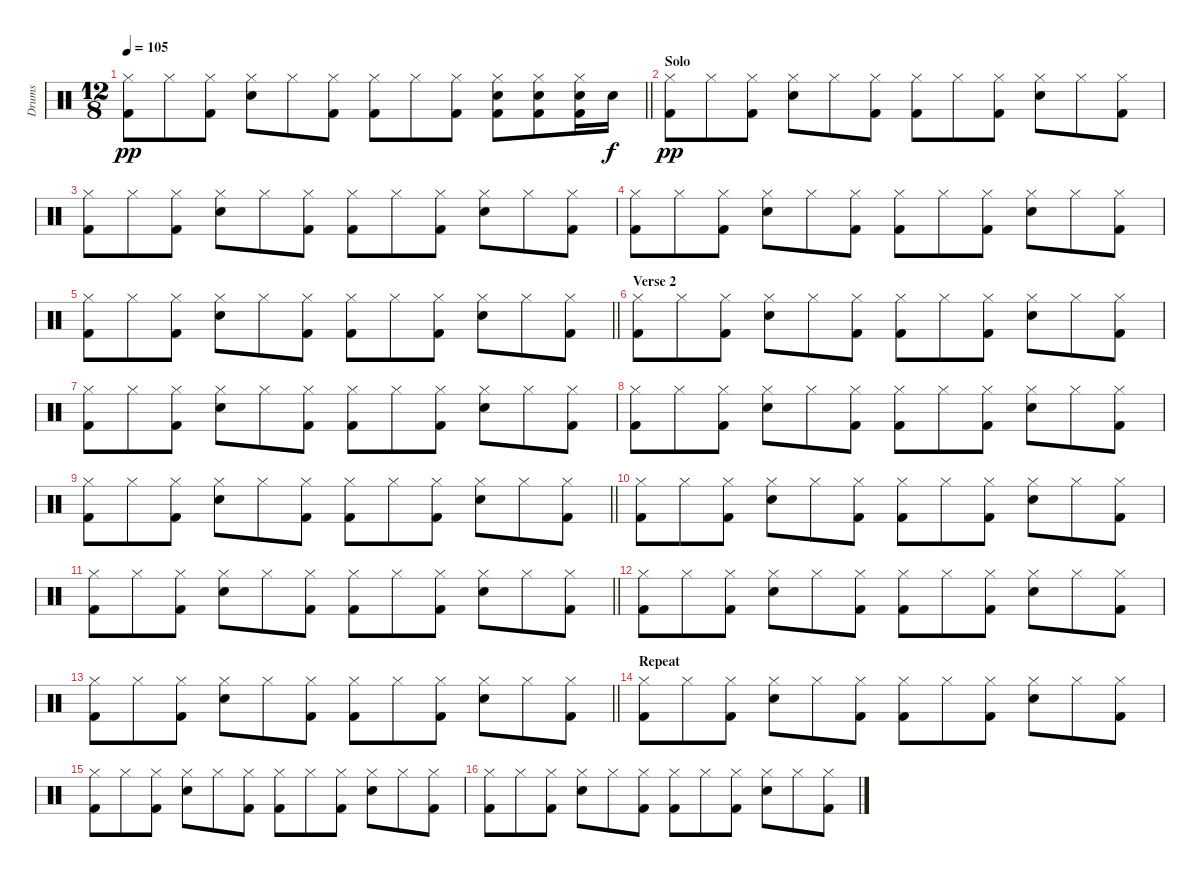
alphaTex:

\track ("Drums" "Drums") {instrument percussion}
\staff
\articulation defaults
\ts (12 8)
\tempo 105
\clef neutral
\barLineRight lightlight
\ks c
("Hi-Hat (closed)" "Kick (hit) 2").8{dy pp} "Hi-Hat (closed)".8 ("Hi-Hat (closed)" "Kick (hit) 2").8 ("Hi-Hat (closed)" "Snare (hit) 2").8 "Hi-Hat (closed)".8 ("Hi-Hat (closed)" "Kick (hit) 2").8 ("Hi-Hat (closed)" "Kick (hit) 2").8 "Hi-Hat (closed)".8 ("Hi-Hat (closed)" "Kick (hit) 2").8 ("Hi-Hat (closed)" "Snare (hit) 2" "Kick (hit) 2").8 ("Hi-Hat (closed)" "Snare (hit) 2" "Kick (hit) 2").8 ("Hi-Hat (closed)" "Snare (hit) 2" "Kick (hit) 2").16 "Snare (hit) 2".16{dy f} |
\section ("" "Solo")
("Hi-Hat (closed)" "Kick (hit) 2").8{dy pp} "Hi-Hat (closed)".8 ("Hi-Hat (closed)" "Kick (hit) 2").8 ("Hi-Hat (closed)" "Snare (hit) 2").8 "Hi-Hat (closed)".8 ("Hi-Hat (closed)" "Kick (hit) 2").8 ("Hi-Hat (closed)" "Kick (hit) 2").8 "Hi-Hat (closed)".8 ("Hi-Hat (closed)" "Kick (hit) 2").8 ("Hi-Hat (closed)" "Snare (hit) 2").8 "Hi-Hat (closed)".8 ("Hi-Hat (closed)" "Kick (hit) 2").8 |
("Hi-Hat (closed)" "Kick (hit) 2").8 "Hi-Hat (closed)".8 ("Hi-Hat (closed)" "Kick (hit) 2").8 ("Hi-Hat (closed)" "Snare (hit) 2").8 "Hi-Hat (closed)".8 ("Hi-Hat (closed)" "Kick (hit) 2").8 ("Hi-Hat (closed)" "Kick (hit) 2").8 "Hi-Hat (closed)".8 ("Hi-Hat (closed)" "Kick (hit) 2").8 ("Hi-Hat (closed)" "Snare (hit) 2").8 "Hi-Hat (closed)".8 ("Hi-Hat (closed)" "Kick (hit) 2").8 |
("Hi-Hat (closed)" "Kick (hit) 2").8 "Hi-Hat (closed)".8 ("Hi-Hat (closed)" "Kick (hit) 2").8 ("Hi-Hat (closed)" "Snare (hit) 2").8 "Hi-Hat (closed)".8 ("Hi-Hat (closed)" "Kick (hit) 2").8 ("Hi-Hat (closed)" "Kick (hit) 2").8 "Hi-Hat (closed)".8 ("Hi-Hat (closed)" "Kick (hit) 2").8 ("Hi-Hat (closed)" "Snare (hit) 2").8 "Hi-Hat (closed)".8 ("Hi-Hat (closed)" "Kick (hit) 2").8 |
\barLineRight lightlight
("Hi-Hat (closed)" "Kick (hit) 2").8 "Hi-Hat (closed)".8 ("Hi-Hat (closed)" "Kick (hit) 2").8 ("Hi-Hat (closed)" "Snare (hit) 2").8 "Hi-Hat (closed)".8 ("Hi-Hat (closed)" "Kick (hit) 2").8 ("Hi-Hat (closed)" "Kick (hit) 2").8 "Hi-Hat (closed)".8 ("Hi-Hat (closed)" "Kick (hit) 2").8 ("Hi-Hat (closed)" "Snare (hit) 2").8 "Hi-Hat (closed)".8 ("Hi-Hat (closed)" "Kick (hit) 2").8 |
\section ("" "Verse 2")
("Hi-Hat (closed)" "Kick (hit) 2").8 "Hi-Hat (closed)".8 ("Hi-Hat (closed)" "Kick (hit) 2").8 ("Hi-Hat (closed)" "Snare (hit) 2").8 "Hi-Hat (closed)".8 ("Hi-Hat (closed)" "Kick (hit) 2").8 ("Hi-Hat (closed)" "Kick (hit) 2").8 "Hi-Hat (closed)".8 ("Hi-Hat (closed)" "Kick (hit) 2").8 ("Hi-Hat (closed)" "Snare (hit) 2").8 "Hi-Hat (closed)".8 ("Hi-Hat (closed)" "Kick (hit) 2").8 |
("Hi-Hat (closed)" "Kick (hit) 2").8 "Hi-Hat (closed)".8 ("Hi-Hat (closed)" "Kick (hit) 2").8 ("Hi-Hat (closed)" "Snare (hit) 2").8 "Hi-Hat (closed)".8 ("Hi-Hat (closed)" "Kick (hit) 2").8 ("Hi-Hat (closed)" "Kick (hit) 2").8 "Hi-Hat (closed)".8 ("Hi-Hat (closed)" "Kick (hit) 2").8 ("Hi-Hat (closed)" "Snare (hit) 2").8 "Hi-Hat (closed)".8 ("Hi-Hat (closed)" "Kick (hit) 2").8 |
("Hi-Hat (closed)" "Kick (hit) 2").8 "Hi-Hat (closed)".8 ("Hi-Hat (closed)" "Kick (hit) 2").8 ("Hi-Hat (closed)" "Snare (hit) 2").8 "Hi-Hat (closed)".8 ("Hi-Hat (closed)" "Kick (hit) 2").8 ("Hi-Hat (closed)" "Kick (hit) 2").8 "Hi-Hat (closed)".8 ("Hi-Hat (closed)" "Kick (hit) 2").8 ("Hi-Hat (closed)" "Snare (hit) 2").8 "Hi-Hat (closed)".8 ("Hi-Hat (closed)" "Kick (hit) 2").8 |
\barLineRight lightlight
("Hi-Hat (closed)" "Kick (hit) 2").8 "Hi-Hat (closed)".8 ("Hi-Hat (closed)" "Kick (hit) 2").8 ("Hi-Hat (closed)" "Snare (hit) 2").8 "Hi-Hat (closed)".8 ("Hi-Hat (closed)" "Kick (hit) 2").8 ("Hi-Hat (closed)" "Kick (hit) 2").8 "Hi-Hat (closed)".8 ("Hi-Hat (closed)" "Kick (hit) 2").8 ("Hi-Hat (closed)" "Snare (hit) 2").8 "Hi-Hat (closed)".8 ("Hi-Hat (closed)" "Kick (hit) 2").8 |
("Hi-Hat (closed)" "Kick (hit) 2").8 "Hi-Hat (closed)".8 ("Hi-Hat (closed)" "Kick (hit) 2").8 ("Hi-Hat (closed)" "Snare (hit) 2").8 "Hi-Hat (closed)".8 ("Hi-Hat (closed)" "Kick (hit) 2").8 ("Hi-Hat (closed)" "Kick (hit) 2").8 "Hi-Hat (closed)".8 ("Hi-Hat (closed)" "Kick (hit) 2").8 ("Hi-Hat (closed)" "Snare (hit) 2").8 "Hi-Hat (closed)".8 ("Hi-Hat (closed)" "Kick (hit) 2").8 |
\barLineRight lightlight
("Hi-Hat (closed)" "Kick (hit) 2").8 "Hi-Hat (closed)".8 ("Hi-Hat (closed)" "Kick (hit) 2").8 ("Hi-Hat (closed)" "Snare (hit) 2").8 "Hi-Hat (closed)".8 ("Hi-Hat (closed)" "Kick (hit) 2").8 ("Hi-Hat (closed)" "Kick (hit) 2").8 "Hi-Hat (closed)".8 ("Hi-Hat (closed)" "Kick (hit) 2").8 ("Hi-Hat (closed)" "Snare (hit) 2").8 "Hi-Hat (closed)".8 ("Hi-Hat (closed)" "Kick (hit) 2").8 |
("Hi-Hat (closed)" "Kick (hit) 2").8 "Hi-Hat (closed)".8 ("Hi-Hat (closed)" "Kick (hit) 2").8 ("Hi-Hat (closed)" "Snare (hit) 2").8 "Hi-Hat (closed)".8 ("Hi-Hat (closed)" "Kick (hit) 2").8 ("Hi-Hat (closed)" "Kick (hit) 2").8 "Hi-Hat (closed)".8 ("Hi-Hat (closed)" "Kick (hit) 2").8 ("Hi-Hat (closed)" "Snare (hit) 2").8 "Hi-Hat (closed)".8 ("Hi-Hat (closed)" "Kick (hit) 2").8 |
\barLineRight lightlight
("Hi-Hat (closed)" "Kick (hit) 2").8 "Hi-Hat (closed)".8 ("Hi-Hat (closed)" "Kick (hit) 2").8 ("Hi-Hat (closed)" "Snare (hit) 2").8 "Hi-Hat (closed)".8 ("Hi-Hat (closed)" "Kick (hit) 2").8 ("Hi-Hat (closed)" "Kick (hit) 2").8 "Hi-Hat (closed)".8 ("Hi-Hat (closed)" "Kick (hit) 2").8 ("Hi-Hat (closed)" "Snare (hit) 2").8 "Hi-Hat (closed)".8 ("Hi-Hat (closed)" "Kick (hit) 2").8 |
\section ("" "Repeat")
("Hi-Hat (closed)" "Kick (hit) 2").8 "Hi-Hat (closed)".8 ("Hi-Hat (closed)" "Kick (hit) 2").8 ("Hi-Hat (closed)" "Snare (hit) 2").8 "Hi-Hat (closed)".8 ("Hi-Hat (closed)" "Kick (hit) 2").8 ("Hi-Hat (closed)" "Kick (hit) 2").8 "Hi-Hat (closed)".8 ("Hi-Hat (closed)" "Kick (hit) 2").8 ("Hi-Hat (closed)" "Snare (hit) 2").8 "Hi-Hat (closed)".8 ("Hi-Hat (closed)" "Kick (hit) 2").8 |
("Hi-Hat (closed)" "Kick (hit) 2").8 "Hi-Hat (closed)".8 ("Hi-Hat (closed)" "Kick (hit) 2").8 ("Hi-Hat (closed)" "Snare (hit) 2").8 "Hi-Hat (closed)".8 ("Hi-Hat (closed)" "Kick (hit) 2").8 ("Hi-Hat (closed)" "Kick (hit) 2").8 "Hi-Hat (closed)".8 ("Hi-Hat (closed)" "Kick (hit) 2").8 ("Hi-Hat (closed)" "Snare (hit) 2").8 "Hi-Hat (closed)".8 ("Hi-Hat (closed)" "Kick (hit) 2").8 |
("Hi-Hat (closed)" "Kick (hit) 2").8 "Hi-Hat (closed)".8 ("Hi-Hat (closed)" "Kick (hit) 2").8 ("Hi-Hat (closed)" "Snare (hit) 2").8 "Hi-Hat (closed)".8 ("Hi-Hat (closed)" "Kick (hit) 2").8 ("Hi-Hat (closed)" "Kick (hit) 2").8 "Hi-Hat (closed)".8 ("Hi-Hat (closed)" "Kick (hit) 2").8 ("Hi-Hat (closed)" "Snare (hit) 2").8 "Hi-Hat (closed)".8 ("Hi-Hat (closed)" "Kick (hit) 2").8
